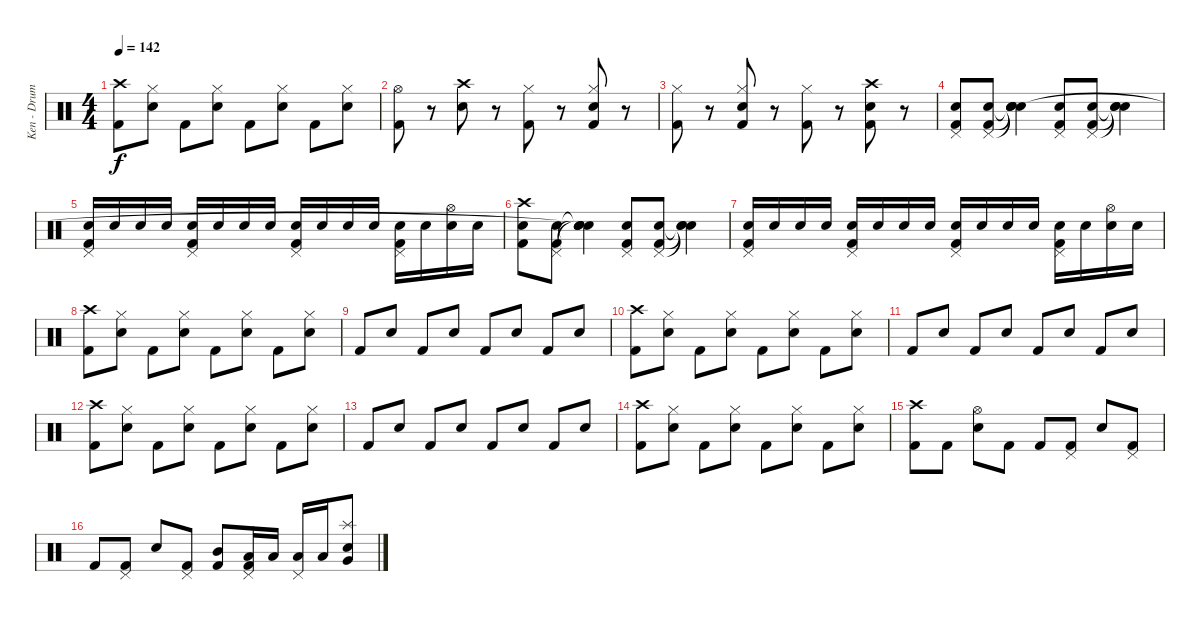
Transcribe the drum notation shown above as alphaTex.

\track ("Ken - Drums" "Ken - Drum") {instrument percussion}
\staff {score}
\articulation defaults
\ts (4 4)
\tempo 142
\clef neutral
\ks c
("Crash high (hit)" "Kick (hit) 2").8{dy f} ("Hi-Hat (closed)" "Electric Snare (hit)").8 "Kick (hit) 2".8 ("Hi-Hat (closed)" "Electric Snare (hit)").8 "Kick (hit) 2".8 ("Hi-Hat (closed)" "Electric Snare (hit)").8 "Kick (hit) 2".8 ("Hi-Hat (closed)" "Electric Snare (hit)").8 |
("Hi-Hat (open)" "Kick (hit) 2").8 r.8 ("Crash high (hit)" "Electric Snare (hit)").8 r.8 ("Hi-Hat (closed)" "Kick (hit) 2").8 r.8 ("Hi-Hat (closed)" "Electric Snare (hit)" "Kick (hit) 2").8 r.8 |
("Hi-Hat (closed)" "Kick (hit) 2").8 r.8 ("Hi-Hat (closed)" "Electric Snare (hit)" "Kick (hit) 2").8 r.8 ("Hi-Hat (closed)" "Kick (hit) 2").8 r.8 ("Crash high (hit)" "Electric Snare (hit)" "Kick (hit) 2").8 r.8 |
("Pedal Hi-Hat (hit)" "Electric Snare (hit)" "Kick (hit) 2").8 ("Pedal Hi-Hat (hit)" "Electric Snare (hit)" "Kick (hit) 2").8 ("Snare (hit)"{t} "Snare (hit)"{t} "Snare (hit)"{t} "Snare (hit)").4 ("Pedal Hi-Hat (hit)" "Electric Snare (hit)" "Kick (hit) 2").8 ("Pedal Hi-Hat (hit)" "Electric Snare (hit)" "Kick (hit) 2").8 ("Snare (hit)"{t} "Snare (hit)"{t} "Snare (hit)"{t}).4 |
("Pedal Hi-Hat (hit)" "Electric Snare (hit)" "Kick (hit) 2").16 "Electric Snare (hit)".16 "Electric Snare (hit)".16 "Electric Snare (hit)".16 ("Pedal Hi-Hat (hit)" "Electric Snare (hit)" "Kick (hit) 2").16 "Electric Snare (hit)".16 "Electric Snare (hit)".16 "Electric Snare (hit)".16 ("Pedal Hi-Hat (hit)" "Electric Snare (hit)" "Kick (hit) 2").16 "Electric Snare (hit)".16 "Electric Snare (hit)".16 "Electric Snare (hit)".16 ("Pedal Hi-Hat (hit)" "Electric Snare (hit)" "Kick (hit) 2").16 "Electric Snare (hit)".16 ("Hi-Hat (open)" "Electric Snare (hit)").16 "Electric Snare (hit)".16 |
("Crash high (hit)" "Electric Snare (hit)" "Kick (hit) 2").8 ("Pedal Hi-Hat (hit)" "Electric Snare (hit)" "Kick (hit) 2").8 ("Snare (hit)"{t} "Snare (hit)"{t} "Snare (hit)"{t} "Snare (hit)"{t}).4 ("Pedal Hi-Hat (hit)" "Electric Snare (hit)" "Kick (hit) 2").8 ("Pedal Hi-Hat (hit)" "Electric Snare (hit)" "Kick (hit) 2").8 ("Snare (hit)"{t} "Snare (hit)"{t} "Snare (hit)"{t}).4 |
("Pedal Hi-Hat (hit)" "Electric Snare (hit)" "Kick (hit) 2").16 "Electric Snare (hit)".16 "Electric Snare (hit)".16 "Electric Snare (hit)".16 ("Pedal Hi-Hat (hit)" "Electric Snare (hit)" "Kick (hit) 2").16 "Electric Snare (hit)".16 "Electric Snare (hit)".16 "Electric Snare (hit)".16 ("Pedal Hi-Hat (hit)" "Electric Snare (hit)" "Kick (hit) 2").16 "Electric Snare (hit)".16 "Electric Snare (hit)".16 "Electric Snare (hit)".16 ("Pedal Hi-Hat (hit)" "Electric Snare (hit)" "Kick (hit) 2").16 "Electric Snare (hit)".16 ("Hi-Hat (open)" "Electric Snare (hit)").16 "Electric Snare (hit)".16 |
("Crash high (hit)" "Kick (hit) 2").8 ("Hi-Hat (closed)" "Electric Snare (hit)").8 "Kick (hit) 2".8 ("Hi-Hat (closed)" "Electric Snare (hit)").8 "Kick (hit) 2".8 ("Hi-Hat (closed)" "Electric Snare (hit)").8 "Kick (hit) 2".8 ("Hi-Hat (closed)" "Electric Snare (hit)").8 |
"Kick (hit) 2".8 "Electric Snare (hit)".8 "Kick (hit) 2".8 "Electric Snare (hit)".8 "Kick (hit) 2".8 "Electric Snare (hit)".8 "Kick (hit) 2".8 "Electric Snare (hit)".8 |
("Crash high (hit)" "Kick (hit) 2").8 ("Hi-Hat (closed)" "Electric Snare (hit)").8 "Kick (hit) 2".8 ("Hi-Hat (closed)" "Electric Snare (hit)").8 "Kick (hit) 2".8 ("Hi-Hat (closed)" "Electric Snare (hit)").8 "Kick (hit) 2".8 ("Hi-Hat (closed)" "Electric Snare (hit)").8 |
"Kick (hit) 2".8 "Electric Snare (hit)".8 "Kick (hit) 2".8 "Electric Snare (hit)".8 "Kick (hit) 2".8 "Electric Snare (hit)".8 "Kick (hit) 2".8 "Electric Snare (hit)".8 |
("Crash high (hit)" "Kick (hit) 2").8 ("Hi-Hat (closed)" "Electric Snare (hit)").8 "Kick (hit) 2".8 ("Hi-Hat (closed)" "Electric Snare (hit)").8 "Kick (hit) 2".8 ("Hi-Hat (closed)" "Electric Snare (hit)").8 "Kick (hit) 2".8 ("Hi-Hat (closed)" "Electric Snare (hit)").8 |
"Kick (hit) 2".8 "Electric Snare (hit)".8 "Kick (hit) 2".8 "Electric Snare (hit)".8 "Kick (hit) 2".8 "Electric Snare (hit)".8 "Kick (hit) 2".8 "Electric Snare (hit)".8 |
("Crash high (hit)" "Kick (hit) 2").8 ("Hi-Hat (closed)" "Electric Snare (hit)").8 "Kick (hit) 2".8 ("Hi-Hat (closed)" "Electric Snare (hit)").8 "Kick (hit) 2".8 ("Hi-Hat (closed)" "Electric Snare (hit)").8 "Kick (hit) 2".8 ("Hi-Hat (closed)" "Electric Snare (hit)").8 |
("Crash high (hit)" "Kick (hit) 2").8 "Kick (hit) 2".8 ("Hi-Hat (open)" "Electric Snare (hit)").8 "Kick (hit) 2".8 "Kick (hit) 2".8 ("Pedal Hi-Hat (hit)" "Kick (hit) 2").8 "Electric Snare (hit)".8 ("Pedal Hi-Hat (hit)" "Kick (hit) 2").8 |
"Kick (hit) 2".8 ("Pedal Hi-Hat (hit)" "Kick (hit) 2").8 "Electric Snare (hit)".8 ("Pedal Hi-Hat (hit)" "Kick (hit) 2").8 ("Mid Tom (hit)" "Kick (hit) 2").8 ("Pedal Hi-Hat (hit)" "Low Tom (hit)" "Kick (hit) 2").16 "Low Tom (hit)".16 ("Pedal Hi-Hat (hit)" "Low Tom (hit)").16 "Low Tom (hit)".16 ("Splash (hit)" "Electric Snare (hit)" "Very Low Tom (hit)").8
